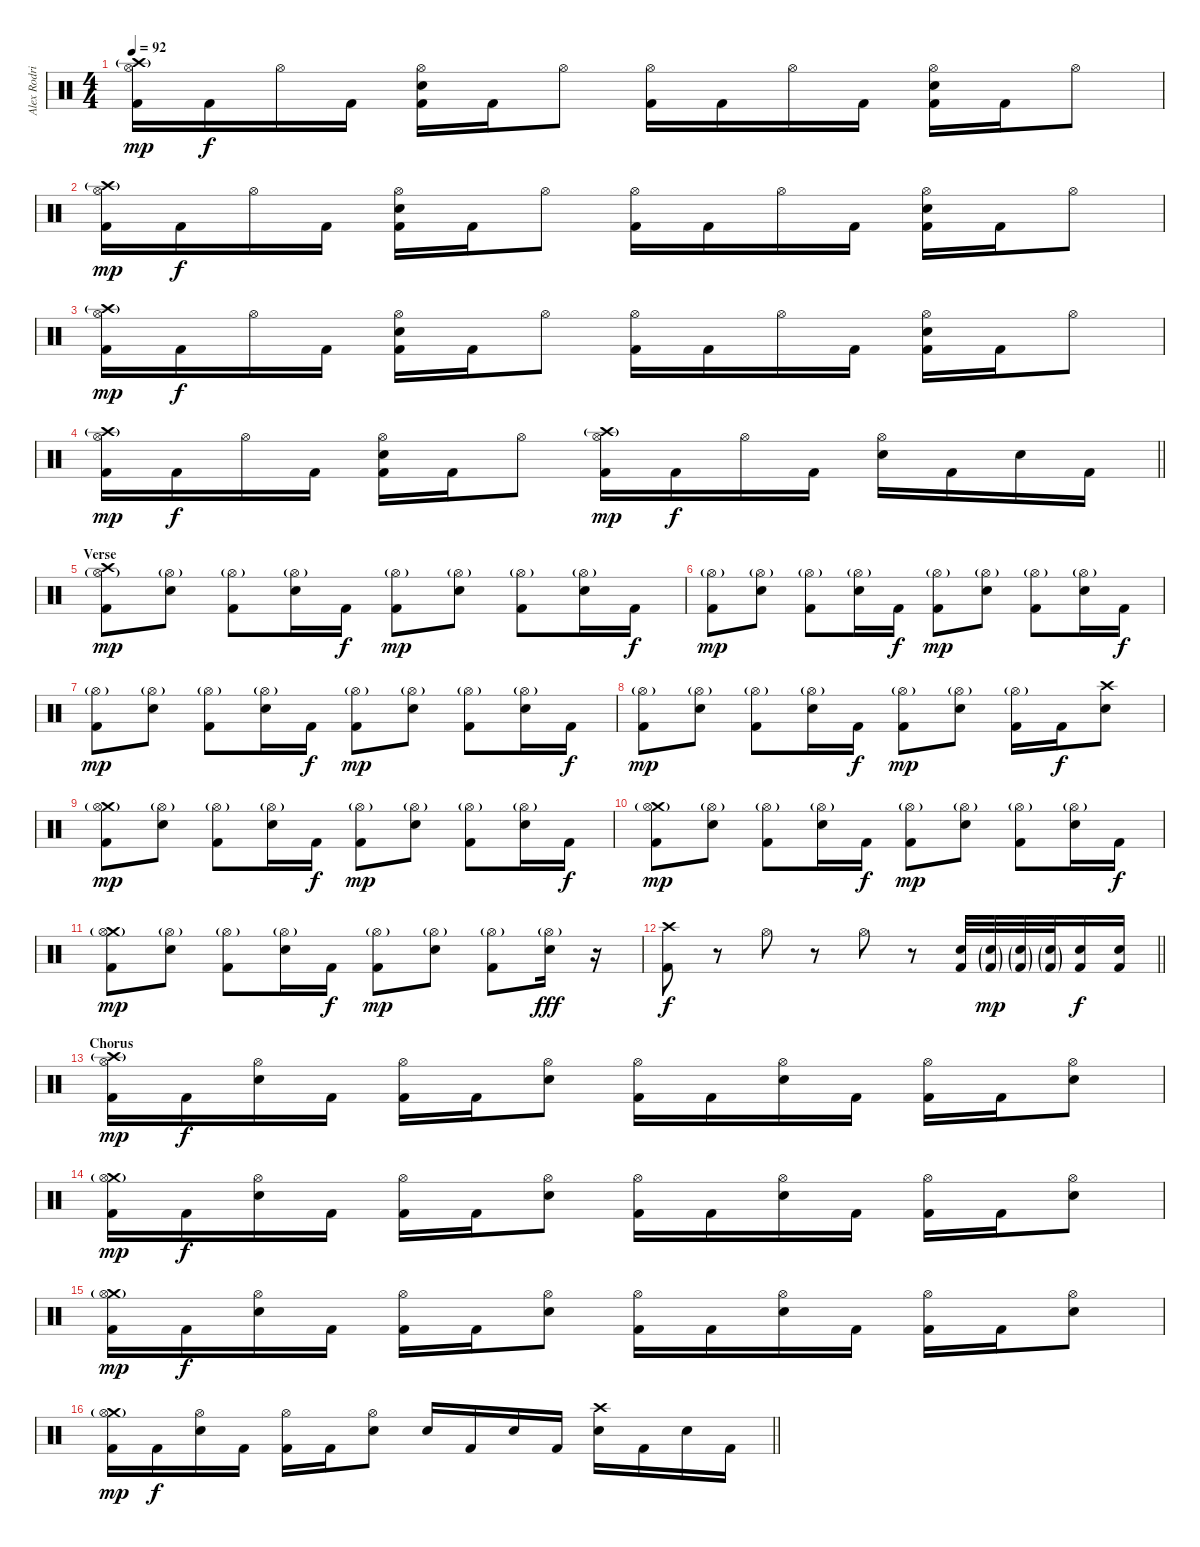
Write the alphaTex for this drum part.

\track ("Alex Rodriguez" "Alex Rodri") {instrument percussion}
\staff {score}
\articulation defaults
\ts (4 4)
\tempo 92
\clef neutral
\ks c
("Crash high (hit)"{g} "Hi-Hat (open)" "Kick (hit) 2").16{dy mp} "Kick (hit) 2".16{dy f} "Hi-Hat (open)".16 "Kick (hit) 2".16 ("Hi-Hat (open)" "Electric Snare (hit)" "Kick (hit) 2").16 "Kick (hit) 2".16 "Hi-Hat (open)".8 ("Hi-Hat (open)" "Kick (hit) 2").16 "Kick (hit) 2".16 "Hi-Hat (open)".16 "Kick (hit) 2".16 ("Hi-Hat (open)" "Electric Snare (hit)" "Kick (hit) 2").16 "Kick (hit) 2".16 "Hi-Hat (open)".8 |
("Crash high (hit)"{g} "Hi-Hat (open)" "Kick (hit) 2").16{dy mp} "Kick (hit) 2".16{dy f} "Hi-Hat (open)".16 "Kick (hit) 2".16 ("Hi-Hat (open)" "Electric Snare (hit)" "Kick (hit) 2").16 "Kick (hit) 2".16 "Hi-Hat (open)".8 ("Hi-Hat (open)" "Kick (hit) 2").16 "Kick (hit) 2".16 "Hi-Hat (open)".16 "Kick (hit) 2".16 ("Hi-Hat (open)" "Electric Snare (hit)" "Kick (hit) 2").16 "Kick (hit) 2".16 "Hi-Hat (open)".8 |
("Crash high (hit)"{g} "Hi-Hat (open)" "Kick (hit) 2").16{dy mp} "Kick (hit) 2".16{dy f} "Hi-Hat (open)".16 "Kick (hit) 2".16 ("Hi-Hat (open)" "Electric Snare (hit)" "Kick (hit) 2").16 "Kick (hit) 2".16 "Hi-Hat (open)".8 ("Hi-Hat (open)" "Kick (hit) 2").16 "Kick (hit) 2".16 "Hi-Hat (open)".16 "Kick (hit) 2".16 ("Hi-Hat (open)" "Electric Snare (hit)" "Kick (hit) 2").16 "Kick (hit) 2".16 "Hi-Hat (open)".8 |
\barLineRight lightlight
("Crash high (hit)"{g} "Hi-Hat (open)" "Kick (hit) 2").16{dy mp} "Kick (hit) 2".16{dy f} "Hi-Hat (open)".16 "Kick (hit) 2".16 ("Hi-Hat (open)" "Electric Snare (hit)" "Kick (hit) 2").16 "Kick (hit) 2".16 "Hi-Hat (open)".8 ("Crash high (hit)"{g} "Hi-Hat (open)" "Kick (hit) 2").16{dy mp} "Kick (hit) 2".16{dy f} "Hi-Hat (open)".16 "Kick (hit) 2".16 ("Hi-Hat (open)" "Electric Snare (hit)").16 "Kick (hit) 2".16 "Electric Snare (hit)".16 "Kick (hit) 2".16 |
\section ("" "Verse")
("Crash high (hit)" "Hi-Hat (open)"{g} "Kick (hit) 2").8{dy mp} ("Hi-Hat (open)"{g} "Electric Snare (hit)").8 ("Hi-Hat (open)"{g} "Kick (hit) 2").8 ("Hi-Hat (open)"{g} "Electric Snare (hit)").16 "Kick (hit) 2".16{dy f} ("Hi-Hat (open)"{g} "Kick (hit) 2").8{dy mp} ("Hi-Hat (open)"{g} "Electric Snare (hit)").8 ("Hi-Hat (open)"{g} "Kick (hit) 2").8 ("Hi-Hat (open)"{g} "Electric Snare (hit)").16 "Kick (hit) 2".16{dy f} |
("Hi-Hat (open)"{g} "Kick (hit) 2").8{dy mp} ("Hi-Hat (open)"{g} "Electric Snare (hit)").8 ("Hi-Hat (open)"{g} "Kick (hit) 2").8 ("Hi-Hat (open)"{g} "Electric Snare (hit)").16 "Kick (hit) 2".16{dy f} ("Hi-Hat (open)"{g} "Kick (hit) 2").8{dy mp} ("Hi-Hat (open)"{g} "Electric Snare (hit)").8 ("Hi-Hat (open)"{g} "Kick (hit) 2").8 ("Hi-Hat (open)"{g} "Electric Snare (hit)").16 "Kick (hit) 2".16{dy f} |
("Hi-Hat (open)"{g} "Kick (hit) 2").8{dy mp} ("Hi-Hat (open)"{g} "Electric Snare (hit)").8 ("Hi-Hat (open)"{g} "Kick (hit) 2").8 ("Hi-Hat (open)"{g} "Electric Snare (hit)").16 "Kick (hit) 2".16{dy f} ("Hi-Hat (open)"{g} "Kick (hit) 2").8{dy mp} ("Hi-Hat (open)"{g} "Electric Snare (hit)").8 ("Hi-Hat (open)"{g} "Kick (hit) 2").8 ("Hi-Hat (open)"{g} "Electric Snare (hit)").16 "Kick (hit) 2".16{dy f} |
("Hi-Hat (open)"{g} "Kick (hit) 2").8{dy mp} ("Hi-Hat (open)"{g} "Electric Snare (hit)").8 ("Hi-Hat (open)"{g} "Kick (hit) 2").8 ("Hi-Hat (open)"{g} "Electric Snare (hit)").16 "Kick (hit) 2".16{dy f} ("Hi-Hat (open)"{g} "Kick (hit) 2").8{dy mp} ("Hi-Hat (open)"{g} "Electric Snare (hit)").8 ("Hi-Hat (open)"{g} "Kick (hit) 2").16 "Kick (hit) 2".16{dy f} ("Crash high (hit)" "Electric Snare (hit)").8 |
("Crash medium (hit)" "Hi-Hat (open)"{g} "Kick (hit) 2").8{dy mp} ("Hi-Hat (open)"{g} "Electric Snare (hit)").8 ("Hi-Hat (open)"{g} "Kick (hit) 2").8 ("Hi-Hat (open)"{g} "Electric Snare (hit)").16 "Kick (hit) 2".16{dy f} ("Hi-Hat (open)"{g} "Kick (hit) 2").8{dy mp} ("Hi-Hat (open)"{g} "Electric Snare (hit)").8 ("Hi-Hat (open)"{g} "Kick (hit) 2").8 ("Hi-Hat (open)"{g} "Electric Snare (hit)").16 "Kick (hit) 2".16{dy f} |
("Crash medium (hit)" "Hi-Hat (open)"{g} "Kick (hit) 2").8{dy mp} ("Hi-Hat (open)"{g} "Electric Snare (hit)").8 ("Hi-Hat (open)"{g} "Kick (hit) 2").8 ("Hi-Hat (open)"{g} "Electric Snare (hit)").16 "Kick (hit) 2".16{dy f} ("Hi-Hat (open)"{g} "Kick (hit) 2").8{dy mp} ("Hi-Hat (open)"{g} "Electric Snare (hit)").8 ("Hi-Hat (open)"{g} "Kick (hit) 2").8 ("Hi-Hat (open)"{g} "Electric Snare (hit)").16 "Kick (hit) 2".16{dy f} |
("Crash medium (hit)" "Hi-Hat (open)"{g} "Kick (hit) 2").8{dy mp} ("Hi-Hat (open)"{g} "Electric Snare (hit)").8 ("Hi-Hat (open)"{g} "Kick (hit) 2").8 ("Hi-Hat (open)"{g} "Electric Snare (hit)").16 "Kick (hit) 2".16{dy f} ("Hi-Hat (open)"{g} "Kick (hit) 2").8{dy mp} ("Hi-Hat (open)"{g} "Electric Snare (hit)").8 ("Hi-Hat (open)"{g} "Kick (hit) 2").8 ("Hi-Hat (open)"{g} "Electric Snare (hit)").16{dy fff} r.16 |
\barLineRight lightlight
("Crash high (hit)" "Kick (hit) 2").8{dy f} r.8 "Hi-Hat (open)".8 r.8 "Hi-Hat (open)".8 r.8 ("Electric Snare (hit)" "Kick (hit) 2").32 ("Electric Snare (hit)"{g} "Kick (hit) 2"{g}).32{dy mp} ("Electric Snare (hit)"{g} "Kick (hit) 2"{g}).32 ("Electric Snare (hit)"{g} "Kick (hit) 2"{g}).32 ("Electric Snare (hit)" "Kick (hit) 2").16{dy f} ("Electric Snare (hit)" "Kick (hit) 2").16 |
\section ("" "Chorus")
("Crash high (hit)"{g} "Hi-Hat (open)" "Kick (hit) 2").16{dy mp} "Kick (hit) 2".16{dy f} ("Hi-Hat (open)" "Electric Snare (hit)").16 "Kick (hit) 2".16 ("Hi-Hat (open)" "Kick (hit) 2").16 "Kick (hit) 2".16 ("Hi-Hat (open)" "Electric Snare (hit)").8 ("Hi-Hat (open)" "Kick (hit) 2").16 "Kick (hit) 2".16 ("Hi-Hat (open)" "Electric Snare (hit)").16 "Kick (hit) 2".16 ("Hi-Hat (open)" "Kick (hit) 2").16 "Kick (hit) 2".16 ("Hi-Hat (open)" "Electric Snare (hit)").8 |
("Crash medium (hit)"{g} "Hi-Hat (open)" "Kick (hit) 2").16{dy mp} "Kick (hit) 2".16{dy f} ("Hi-Hat (open)" "Electric Snare (hit)").16 "Kick (hit) 2".16 ("Hi-Hat (open)" "Kick (hit) 2").16 "Kick (hit) 2".16 ("Hi-Hat (open)" "Electric Snare (hit)").8 ("Hi-Hat (open)" "Kick (hit) 2").16 "Kick (hit) 2".16 ("Hi-Hat (open)" "Electric Snare (hit)").16 "Kick (hit) 2".16 ("Hi-Hat (open)" "Kick (hit) 2").16 "Kick (hit) 2".16 ("Hi-Hat (open)" "Electric Snare (hit)").8 |
("Crash medium (hit)"{g} "Hi-Hat (open)" "Kick (hit) 2").16{dy mp} "Kick (hit) 2".16{dy f} ("Hi-Hat (open)" "Electric Snare (hit)").16 "Kick (hit) 2".16 ("Hi-Hat (open)" "Kick (hit) 2").16 "Kick (hit) 2".16 ("Hi-Hat (open)" "Electric Snare (hit)").8 ("Hi-Hat (open)" "Kick (hit) 2").16 "Kick (hit) 2".16 ("Hi-Hat (open)" "Electric Snare (hit)").16 "Kick (hit) 2".16 ("Hi-Hat (open)" "Kick (hit) 2").16 "Kick (hit) 2".16 ("Hi-Hat (open)" "Electric Snare (hit)").8 |
\barLineRight lightlight
("Crash medium (hit)"{g} "Hi-Hat (open)" "Kick (hit) 2").16{dy mp} "Kick (hit) 2".16{dy f} ("Hi-Hat (open)" "Electric Snare (hit)").16 "Kick (hit) 2".16 ("Hi-Hat (open)" "Kick (hit) 2").16 "Kick (hit) 2".16 ("Hi-Hat (open)" "Electric Snare (hit)").8 "Electric Snare (hit)".16 "Kick (hit) 2".16 "Electric Snare (hit)".16 "Kick (hit) 2".16 ("Crash high (hit)" "Electric Snare (hit)").16 "Kick (hit) 2".16 "Electric Snare (hit)".16 "Kick (hit) 2".16
